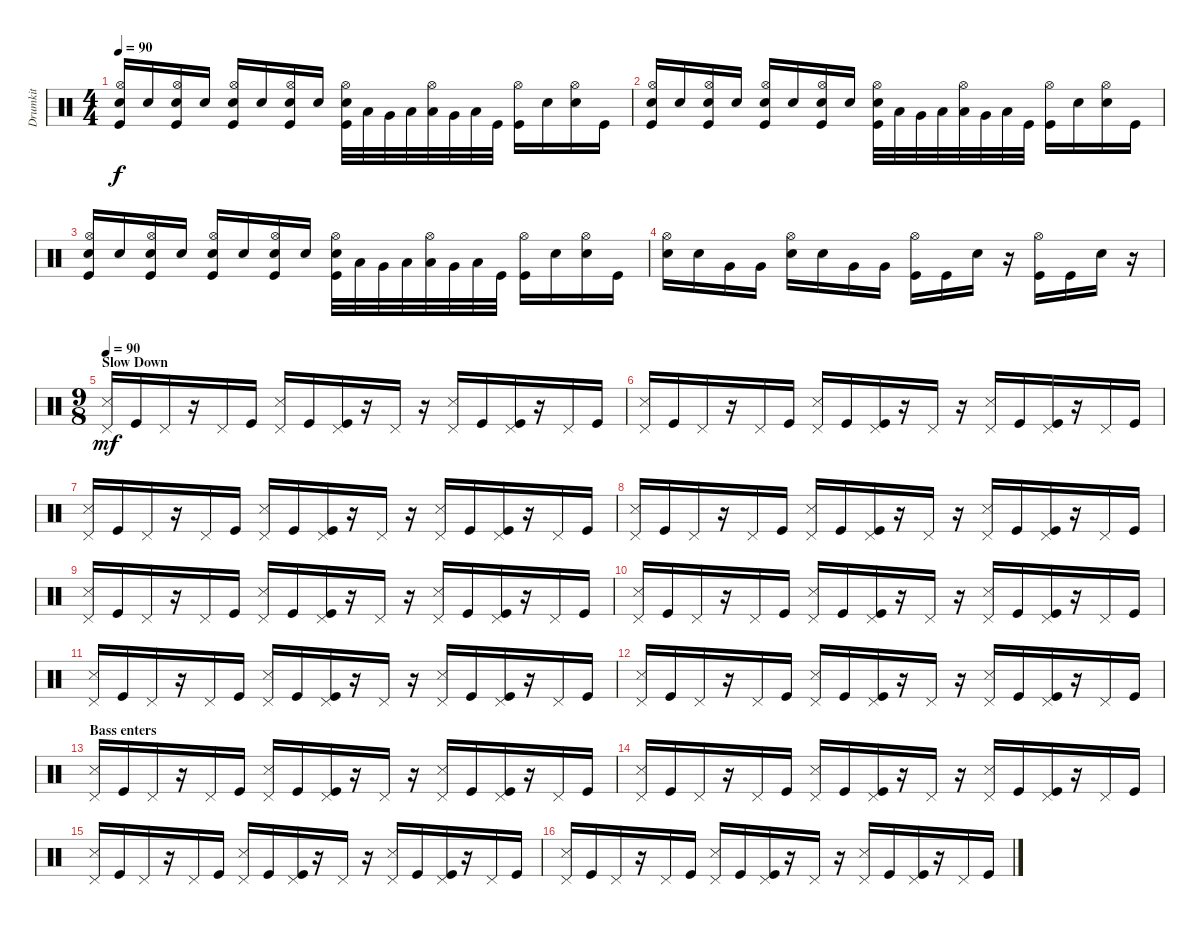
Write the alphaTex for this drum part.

\track ("Drumkit" "Drumkit") {instrument percussion}
\staff {score}
\articulation defaults
\ts (4 4)
\tempo 90
\clef neutral
\ks c
("Snare (hit) 2" "Hi-Hat (open)" "Kick (hit)").16{dy f} "Snare (hit) 2".16 ("Snare (hit) 2" "Hi-Hat (open)" "Kick (hit)").16 "Snare (hit) 2".16 ("Snare (hit) 2" "Hi-Hat (open)" "Kick (hit)").16 "Snare (hit) 2".16 ("Snare (hit) 2" "Hi-Hat (open)" "Kick (hit)").16 "Snare (hit) 2".16 ("Snare (hit) 2" "Kick (hit)" "Hi-Hat (open)").32 "Low Tom (hit)".32 "Very Low Tom (hit)".32 "Low Floor Tom (hit)".32 ("Low Tom (hit)" "Hi-Hat (open)").32 "Very Low Tom (hit)".32 "Low Floor Tom (hit)".32 "Kick (hit)".32 ("Hi-Hat (open)" "Kick (hit)").16 "Snare (hit) 2".16 ("Snare (hit) 2" "Hi-Hat (open)").16 "Kick (hit)".16 |
("Snare (hit) 2" "Hi-Hat (open)" "Kick (hit)").16 "Snare (hit) 2".16 ("Snare (hit) 2" "Hi-Hat (open)" "Kick (hit)").16 "Snare (hit) 2".16 ("Snare (hit) 2" "Hi-Hat (open)" "Kick (hit)").16 "Snare (hit) 2".16 ("Snare (hit) 2" "Hi-Hat (open)" "Kick (hit)").16 "Snare (hit) 2".16 ("Snare (hit) 2" "Kick (hit)" "Hi-Hat (open)").32 "Low Tom (hit)".32 "Very Low Tom (hit)".32 "Low Floor Tom (hit)".32 ("Low Tom (hit)" "Hi-Hat (open)").32 "Very Low Tom (hit)".32 "Low Floor Tom (hit)".32 "Kick (hit)".32 ("Hi-Hat (open)" "Kick (hit)").16 "Snare (hit) 2".16 ("Snare (hit) 2" "Hi-Hat (open)").16 "Kick (hit)".16 |
("Snare (hit) 2" "Hi-Hat (open)" "Kick (hit)").16 "Snare (hit) 2".16 ("Snare (hit) 2" "Hi-Hat (open)" "Kick (hit)").16 "Snare (hit) 2".16 ("Snare (hit) 2" "Hi-Hat (open)" "Kick (hit)").16 "Snare (hit) 2".16 ("Snare (hit) 2" "Hi-Hat (open)" "Kick (hit)").16 "Snare (hit) 2".16 ("Snare (hit) 2" "Kick (hit)" "Hi-Hat (open)").32 "Low Tom (hit)".32 "Very Low Tom (hit)".32 "Low Floor Tom (hit)".32 ("Low Tom (hit)" "Hi-Hat (open)").32 "Very Low Tom (hit)".32 "Low Floor Tom (hit)".32 "Kick (hit)".32 ("Hi-Hat (open)" "Kick (hit)").16 "Snare (hit) 2".16 ("Snare (hit) 2" "Hi-Hat (open)").16 "Kick (hit)".16 |
("Snare (hit) 2" "Hi-Hat (open)").16 "Snare (hit) 2".16 "Very Low Tom (hit)".16 "Very Low Tom (hit)".16 ("Snare (hit) 2" "Hi-Hat (open)").16 "Snare (hit) 2".16 "Very Low Tom (hit)".16 "Very Low Tom (hit)".16 ("Kick (hit)" "Hi-Hat (open)").16 "Kick (hit)".16 "Snare (hit) 2".16 r.16 ("Kick (hit)" "Hi-Hat (open)").16 "Kick (hit)".16 "Snare (hit) 2".16 r.16 |
\ts (9 8)
\section ("" "Slow Down")
\tempo 90
("Snare (side stick) 3" "Pedal Hi-Hat (hit)").16{dy mf} "Kick (hit)".16 "Pedal Hi-Hat (hit)".16 r.16 "Pedal Hi-Hat (hit)".16 "Kick (hit)".16 ("Snare (side stick) 3" "Pedal Hi-Hat (hit)").16 "Kick (hit)".16 ("Kick (hit)" "Pedal Hi-Hat (hit)").16 r.16 "Pedal Hi-Hat (hit)".16 r.16 ("Snare (side stick) 3" "Pedal Hi-Hat (hit)").16 "Kick (hit)".16 ("Kick (hit)" "Pedal Hi-Hat (hit)").16 r.16 "Pedal Hi-Hat (hit)".16 "Kick (hit)".16 |
("Snare (side stick) 3" "Pedal Hi-Hat (hit)").16 "Kick (hit)".16 "Pedal Hi-Hat (hit)".16 r.16 "Pedal Hi-Hat (hit)".16 "Kick (hit)".16 ("Snare (side stick) 3" "Pedal Hi-Hat (hit)").16 "Kick (hit)".16 ("Kick (hit)" "Pedal Hi-Hat (hit)").16 r.16 "Pedal Hi-Hat (hit)".16 r.16 ("Snare (side stick) 3" "Pedal Hi-Hat (hit)").16 "Kick (hit)".16 ("Kick (hit)" "Pedal Hi-Hat (hit)").16 r.16 "Pedal Hi-Hat (hit)".16 "Kick (hit)".16 |
("Snare (side stick) 3" "Pedal Hi-Hat (hit)").16 "Kick (hit)".16 "Pedal Hi-Hat (hit)".16 r.16 "Pedal Hi-Hat (hit)".16 "Kick (hit)".16 ("Snare (side stick) 3" "Pedal Hi-Hat (hit)").16 "Kick (hit)".16 ("Kick (hit)" "Pedal Hi-Hat (hit)").16 r.16 "Pedal Hi-Hat (hit)".16 r.16 ("Snare (side stick) 3" "Pedal Hi-Hat (hit)").16 "Kick (hit)".16 ("Kick (hit)" "Pedal Hi-Hat (hit)").16 r.16 "Pedal Hi-Hat (hit)".16 "Kick (hit)".16 |
("Snare (side stick) 3" "Pedal Hi-Hat (hit)").16 "Kick (hit)".16 "Pedal Hi-Hat (hit)".16 r.16 "Pedal Hi-Hat (hit)".16 "Kick (hit)".16 ("Snare (side stick) 3" "Pedal Hi-Hat (hit)").16 "Kick (hit)".16 ("Kick (hit)" "Pedal Hi-Hat (hit)").16 r.16 "Pedal Hi-Hat (hit)".16 r.16 ("Snare (side stick) 3" "Pedal Hi-Hat (hit)").16 "Kick (hit)".16 ("Kick (hit)" "Pedal Hi-Hat (hit)").16 r.16 "Pedal Hi-Hat (hit)".16 "Kick (hit)".16 |
("Snare (side stick) 3" "Pedal Hi-Hat (hit)").16 "Kick (hit)".16 "Pedal Hi-Hat (hit)".16 r.16 "Pedal Hi-Hat (hit)".16 "Kick (hit)".16 ("Snare (side stick) 3" "Pedal Hi-Hat (hit)").16 "Kick (hit)".16 ("Kick (hit)" "Pedal Hi-Hat (hit)").16 r.16 "Pedal Hi-Hat (hit)".16 r.16 ("Snare (side stick) 3" "Pedal Hi-Hat (hit)").16 "Kick (hit)".16 ("Kick (hit)" "Pedal Hi-Hat (hit)").16 r.16 "Pedal Hi-Hat (hit)".16 "Kick (hit)".16 |
("Snare (side stick) 3" "Pedal Hi-Hat (hit)").16 "Kick (hit)".16 "Pedal Hi-Hat (hit)".16 r.16 "Pedal Hi-Hat (hit)".16 "Kick (hit)".16 ("Snare (side stick) 3" "Pedal Hi-Hat (hit)").16 "Kick (hit)".16 ("Kick (hit)" "Pedal Hi-Hat (hit)").16 r.16 "Pedal Hi-Hat (hit)".16 r.16 ("Snare (side stick) 3" "Pedal Hi-Hat (hit)").16 "Kick (hit)".16 ("Kick (hit)" "Pedal Hi-Hat (hit)").16 r.16 "Pedal Hi-Hat (hit)".16 "Kick (hit)".16 |
("Snare (side stick) 3" "Pedal Hi-Hat (hit)").16 "Kick (hit)".16 "Pedal Hi-Hat (hit)".16 r.16 "Pedal Hi-Hat (hit)".16 "Kick (hit)".16 ("Snare (side stick) 3" "Pedal Hi-Hat (hit)").16 "Kick (hit)".16 ("Kick (hit)" "Pedal Hi-Hat (hit)").16 r.16 "Pedal Hi-Hat (hit)".16 r.16 ("Snare (side stick) 3" "Pedal Hi-Hat (hit)").16 "Kick (hit)".16 ("Kick (hit)" "Pedal Hi-Hat (hit)").16 r.16 "Pedal Hi-Hat (hit)".16 "Kick (hit)".16 |
("Snare (side stick) 3" "Pedal Hi-Hat (hit)").16 "Kick (hit)".16 "Pedal Hi-Hat (hit)".16 r.16 "Pedal Hi-Hat (hit)".16 "Kick (hit)".16 ("Snare (side stick) 3" "Pedal Hi-Hat (hit)").16 "Kick (hit)".16 ("Kick (hit)" "Pedal Hi-Hat (hit)").16 r.16 "Pedal Hi-Hat (hit)".16 r.16 ("Snare (side stick) 3" "Pedal Hi-Hat (hit)").16 "Kick (hit)".16 ("Kick (hit)" "Pedal Hi-Hat (hit)").16 r.16 "Pedal Hi-Hat (hit)".16 "Kick (hit)".16 |
\section ("" "Bass enters")
("Snare (side stick) 3" "Pedal Hi-Hat (hit)").16 "Kick (hit)".16 "Pedal Hi-Hat (hit)".16 r.16 "Pedal Hi-Hat (hit)".16 "Kick (hit)".16 ("Snare (side stick) 3" "Pedal Hi-Hat (hit)").16 "Kick (hit)".16 ("Kick (hit)" "Pedal Hi-Hat (hit)").16 r.16 "Pedal Hi-Hat (hit)".16 r.16 ("Snare (side stick) 3" "Pedal Hi-Hat (hit)").16 "Kick (hit)".16 ("Kick (hit)" "Pedal Hi-Hat (hit)").16 r.16 "Pedal Hi-Hat (hit)".16 "Kick (hit)".16 |
("Snare (side stick) 3" "Pedal Hi-Hat (hit)").16 "Kick (hit)".16 "Pedal Hi-Hat (hit)".16 r.16 "Pedal Hi-Hat (hit)".16 "Kick (hit)".16 ("Snare (side stick) 3" "Pedal Hi-Hat (hit)").16 "Kick (hit)".16 ("Kick (hit)" "Pedal Hi-Hat (hit)").16 r.16 "Pedal Hi-Hat (hit)".16 r.16 ("Snare (side stick) 3" "Pedal Hi-Hat (hit)").16 "Kick (hit)".16 ("Kick (hit)" "Pedal Hi-Hat (hit)").16 r.16 "Pedal Hi-Hat (hit)".16 "Kick (hit)".16 |
("Snare (side stick) 3" "Pedal Hi-Hat (hit)").16 "Kick (hit)".16 "Pedal Hi-Hat (hit)".16 r.16 "Pedal Hi-Hat (hit)".16 "Kick (hit)".16 ("Snare (side stick) 3" "Pedal Hi-Hat (hit)").16 "Kick (hit)".16 ("Kick (hit)" "Pedal Hi-Hat (hit)").16 r.16 "Pedal Hi-Hat (hit)".16 r.16 ("Snare (side stick) 3" "Pedal Hi-Hat (hit)").16 "Kick (hit)".16 ("Kick (hit)" "Pedal Hi-Hat (hit)").16 r.16 "Pedal Hi-Hat (hit)".16 "Kick (hit)".16 |
("Snare (side stick) 3" "Pedal Hi-Hat (hit)").16 "Kick (hit)".16 "Pedal Hi-Hat (hit)".16 r.16 "Pedal Hi-Hat (hit)".16 "Kick (hit)".16 ("Snare (side stick) 3" "Pedal Hi-Hat (hit)").16 "Kick (hit)".16 ("Kick (hit)" "Pedal Hi-Hat (hit)").16 r.16 "Pedal Hi-Hat (hit)".16 r.16 ("Snare (side stick) 3" "Pedal Hi-Hat (hit)").16 "Kick (hit)".16 ("Kick (hit)" "Pedal Hi-Hat (hit)").16 r.16 "Pedal Hi-Hat (hit)".16 "Kick (hit)".16
